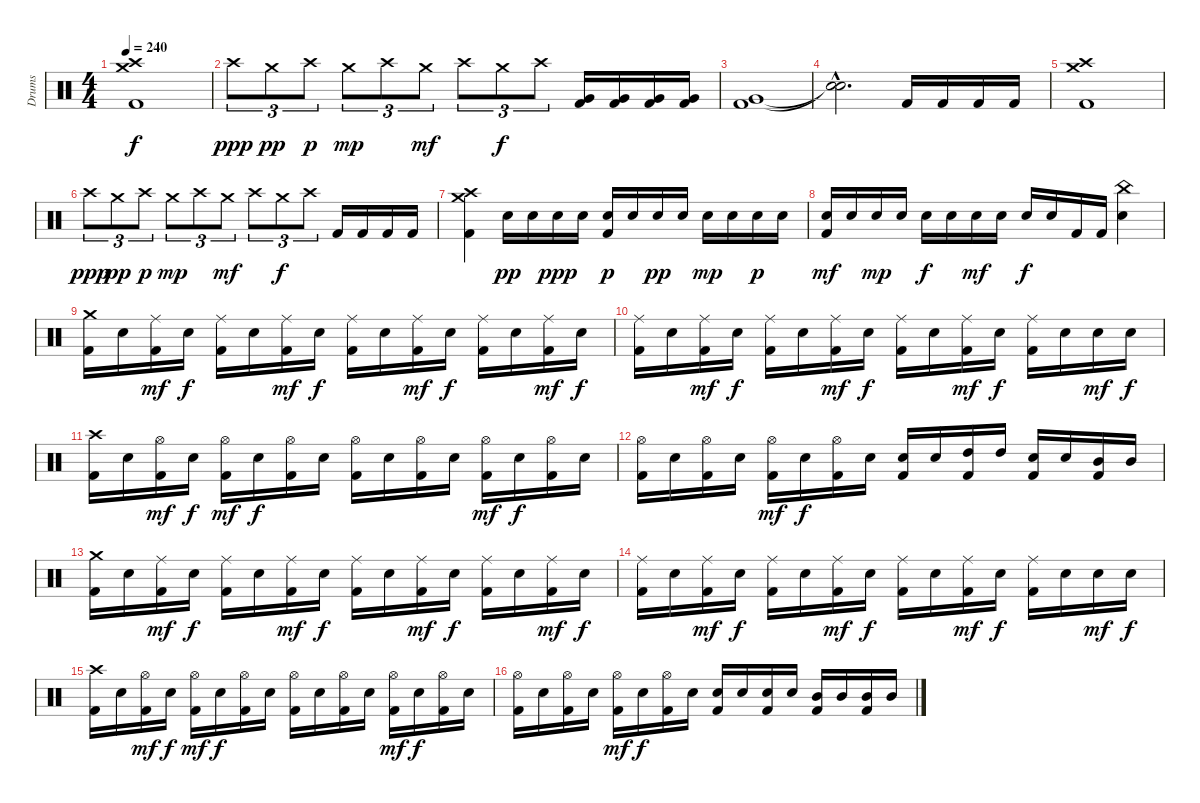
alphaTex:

\track ("Drums" "Drums") {instrument percussion}
\staff {score}
\articulation defaults
\ts (4 4)
\tempo 240
\clef neutral
\ks c
("Crash medium (hit)" "Crash high (hit)" "Kick (hit) 2").1{dy f} |
"Crash high (hit)".8{tu (3 2) dy ppp} "Crash medium (hit)".8{tu (3 2) dy pp} "Crash high (hit)".8{tu (3 2) dy p} "Crash medium (hit)".8{tu (3 2) dy mp} "Crash high (hit)".8{tu (3 2)} "Crash medium (hit)".8{tu (3 2) dy mf} "Crash high (hit)".8{tu (3 2)} "Crash medium (hit)".8{tu (3 2) dy f} "Crash high (hit)".8{tu (3 2)} ("Very Low Tom (hit)" "Kick (hit) 2").16 ("Very Low Tom (hit)" "Kick (hit) 2").16 ("Very Low Tom (hit)" "Kick (hit) 2").16 ("Very Low Tom (hit)" "Kick (hit) 2").16 |
("Very Low Tom (hit)" "Kick (hit) 2").1 |
("Snare (hit)"{hac t} "Snare (hit)"{hac t}).2{d} "Kick (hit) 2".16 "Kick (hit) 2".16 "Kick (hit) 2".16 "Kick (hit) 2".16 |
("Crash medium (hit)" "Crash high (hit)" "Kick (hit) 2").1 |
"Crash high (hit)".8{tu (3 2) dy ppp} "Crash medium (hit)".8{tu (3 2) dy pp} "Crash high (hit)".8{tu (3 2) dy p} "Crash medium (hit)".8{tu (3 2) dy mp} "Crash high (hit)".8{tu (3 2)} "Crash medium (hit)".8{tu (3 2) dy mf} "Crash high (hit)".8{tu (3 2)} "Crash medium (hit)".8{tu (3 2) dy f} "Crash high (hit)".8{tu (3 2)} "Kick (hit) 2".16 "Kick (hit) 2".16 "Kick (hit) 2".16 "Kick (hit) 2".16 |
("Crash medium (hit)" "Crash high (hit)" "Kick (hit) 2").4 "Electric Snare (hit)".16{dy pp} "Electric Snare (hit)".16 "Electric Snare (hit)".16{dy ppp} "Electric Snare (hit)".16 ("Electric Snare (hit)" "Kick (hit) 2").16{dy p} "Electric Snare (hit)".16 "Electric Snare (hit)".16{dy pp} "Electric Snare (hit)".16 "Electric Snare (hit)".16{dy mp} "Electric Snare (hit)".16 "Electric Snare (hit)".16{dy p} "Electric Snare (hit)".16 |
("Electric Snare (hit)" "Kick (hit) 2").16{dy mf} "Electric Snare (hit)".16 "Electric Snare (hit)".16{dy mp} "Electric Snare (hit)".16 "Electric Snare (hit)".16{dy f} "Electric Snare (hit)".16 "Electric Snare (hit)".16{dy mf} "Electric Snare (hit)".16 "Electric Snare (hit)".16{dy f} "Electric Snare (hit)".16 "Kick (hit) 2".16 "Kick (hit) 2".16 ("China (hit)" "Electric Snare (hit)").4 |
("Crash medium (hit)" "Kick (hit) 2").16 "Electric Snare (hit)".16 ("Ride (middle)" "Kick (hit) 2").16{dy mf} "Electric Snare (hit)".16{dy f} ("Ride (middle)" "Kick (hit) 2").16 "Electric Snare (hit)".16 ("Ride (middle)" "Kick (hit) 2").16{dy mf} "Electric Snare (hit)".16{dy f} ("Ride (middle)" "Kick (hit) 2").16 "Electric Snare (hit)".16 ("Ride (middle)" "Kick (hit) 2").16{dy mf} "Electric Snare (hit)".16{dy f} ("Ride (middle)" "Kick (hit) 2").16 "Electric Snare (hit)".16 ("Ride (middle)" "Kick (hit) 2").16{dy mf} "Electric Snare (hit)".16{dy f} |
("Ride (middle)" "Kick (hit) 2").16 "Electric Snare (hit)".16 ("Ride (middle)" "Kick (hit) 2").16{dy mf} "Electric Snare (hit)".16{dy f} ("Ride (middle)" "Kick (hit) 2").16 "Electric Snare (hit)".16 ("Ride (middle)" "Kick (hit) 2").16{dy mf} "Electric Snare (hit)".16{dy f} ("Ride (middle)" "Kick (hit) 2").16 "Electric Snare (hit)".16 ("Ride (middle)" "Kick (hit) 2").16{dy mf} "Electric Snare (hit)".16{dy f} ("Ride (middle)" "Kick (hit) 2").16 "Electric Snare (hit)".16 "Electric Snare (hit)".16{dy mf} "Electric Snare (hit)".16{dy f} |
("Crash high (hit)" "Kick (hit) 2").16 "Electric Snare (hit)".16 ("Hi-Hat (open)" "Kick (hit) 2").16{dy mf} "Electric Snare (hit)".16{dy f} ("Hi-Hat (open)" "Kick (hit) 2").16{dy mf} "Electric Snare (hit)".16{dy f} ("Hi-Hat (open)" "Kick (hit) 2").16 "Electric Snare (hit)".16 ("Hi-Hat (open)" "Kick (hit) 2").16 "Electric Snare (hit)".16 ("Hi-Hat (open)" "Kick (hit) 2").16 "Electric Snare (hit)".16 ("Hi-Hat (open)" "Kick (hit) 2").16{dy mf} "Electric Snare (hit)".16{dy f} ("Hi-Hat (open)" "Kick (hit) 2").16 "Electric Snare (hit)".16 |
("Hi-Hat (open)" "Kick (hit) 2").16 "Electric Snare (hit)".16 ("Hi-Hat (open)" "Kick (hit) 2").16 "Electric Snare (hit)".16 ("Hi-Hat (open)" "Kick (hit) 2").16{dy mf} "Electric Snare (hit)".16{dy f} ("Hi-Hat (open)" "Kick (hit) 2").16 "Electric Snare (hit)".16 ("Electric Snare (hit)" "Kick (hit) 2").16 "Electric Snare (hit)".16 ("High Tom (hit)" "Kick (hit) 2").16 "High Tom (hit)".16 ("Electric Snare (hit)" "Kick (hit) 2").16 "Electric Snare (hit)".16 ("Mid Tom (hit)" "Kick (hit) 2").16 "Mid Tom (hit)".16 |
("Crash medium (hit)" "Kick (hit) 2").16 "Electric Snare (hit)".16 ("Ride (middle)" "Kick (hit) 2").16{dy mf} "Electric Snare (hit)".16{dy f} ("Ride (middle)" "Kick (hit) 2").16 "Electric Snare (hit)".16 ("Ride (middle)" "Kick (hit) 2").16{dy mf} "Electric Snare (hit)".16{dy f} ("Ride (middle)" "Kick (hit) 2").16 "Electric Snare (hit)".16 ("Ride (middle)" "Kick (hit) 2").16{dy mf} "Electric Snare (hit)".16{dy f} ("Ride (middle)" "Kick (hit) 2").16 "Electric Snare (hit)".16 ("Ride (middle)" "Kick (hit) 2").16{dy mf} "Electric Snare (hit)".16{dy f} |
("Ride (middle)" "Kick (hit) 2").16 "Electric Snare (hit)".16 ("Ride (middle)" "Kick (hit) 2").16{dy mf} "Electric Snare (hit)".16{dy f} ("Ride (middle)" "Kick (hit) 2").16 "Electric Snare (hit)".16 ("Ride (middle)" "Kick (hit) 2").16{dy mf} "Electric Snare (hit)".16{dy f} ("Ride (middle)" "Kick (hit) 2").16 "Electric Snare (hit)".16 ("Ride (middle)" "Kick (hit) 2").16{dy mf} "Electric Snare (hit)".16{dy f} ("Ride (middle)" "Kick (hit) 2").16 "Electric Snare (hit)".16 "Electric Snare (hit)".16{dy mf} "Electric Snare (hit)".16{dy f} |
("Crash high (hit)" "Kick (hit) 2").16 "Electric Snare (hit)".16 ("Hi-Hat (open)" "Kick (hit) 2").16{dy mf} "Electric Snare (hit)".16{dy f} ("Hi-Hat (open)" "Kick (hit) 2").16{dy mf} "Electric Snare (hit)".16{dy f} ("Hi-Hat (open)" "Kick (hit) 2").16 "Electric Snare (hit)".16 ("Hi-Hat (open)" "Kick (hit) 2").16 "Electric Snare (hit)".16 ("Hi-Hat (open)" "Kick (hit) 2").16 "Electric Snare (hit)".16 ("Hi-Hat (open)" "Kick (hit) 2").16{dy mf} "Electric Snare (hit)".16{dy f} ("Hi-Hat (open)" "Kick (hit) 2").16 "Electric Snare (hit)".16 |
("Hi-Hat (open)" "Kick (hit) 2").16 "Electric Snare (hit)".16 ("Hi-Hat (open)" "Kick (hit) 2").16 "Electric Snare (hit)".16 ("Hi-Hat (open)" "Kick (hit) 2").16{dy mf} "Electric Snare (hit)".16{dy f} ("Hi-Hat (open)" "Kick (hit) 2").16 "Electric Snare (hit)".16 ("Electric Snare (hit)" "Kick (hit) 2").16 "Electric Snare (hit)".16 ("Electric Snare (hit)" "Kick (hit) 2").16 "Electric Snare (hit)".16 ("Mid Tom (hit)" "Kick (hit) 2").16 "Mid Tom (hit)".16 ("Mid Tom (hit)" "Kick (hit) 2").16 "Mid Tom (hit)".16
